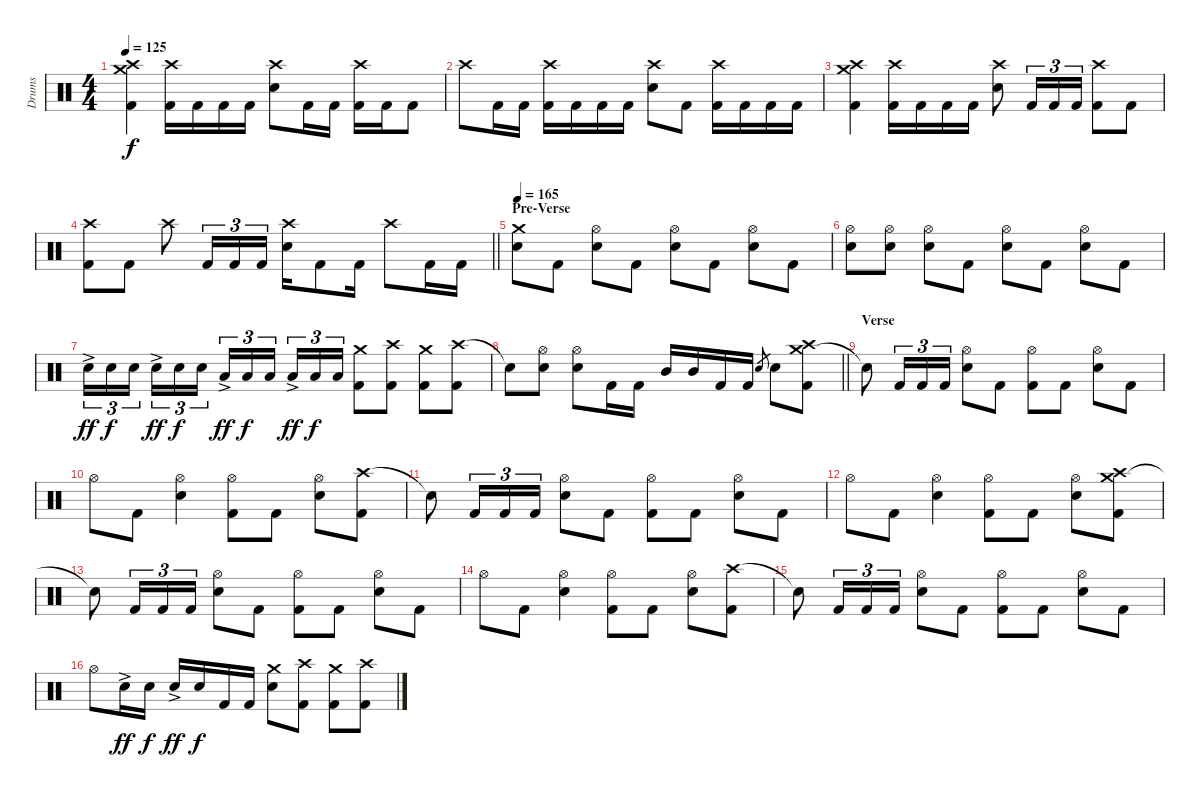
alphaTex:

\track ("Drums" "Drums") {instrument percussion}
\staff {score}
\articulation defaults
\ts (4 4)
\tempo 125
\clef neutral
\ks c
("Crash medium (hit)" "Crash high (hit)" "Kick (hit) 2").4{dy f} ("Crash high (hit)" "Kick (hit) 2").16 "Kick (hit) 2".16 "Kick (hit) 2".16 "Kick (hit) 2".16 ("Crash high (hit)" "Electric Snare (hit)").8 "Kick (hit) 2".16 "Kick (hit) 2".16 ("Crash high (hit)" "Kick (hit) 2").16 "Kick (hit) 2".16 "Kick (hit) 2".8 |
"Crash high (hit)".8 "Kick (hit) 2".16 "Kick (hit) 2".16 ("Crash high (hit)" "Kick (hit) 2").16 "Kick (hit) 2".16 "Kick (hit) 2".16 "Kick (hit) 2".16 ("Crash high (hit)" "Electric Snare (hit)").8 "Kick (hit) 2".8 ("Crash high (hit)" "Kick (hit) 2").16 "Kick (hit) 2".16 "Kick (hit) 2".16 "Kick (hit) 2".16 |
("Crash medium (hit)" "Crash high (hit)" "Kick (hit) 2").4 ("Crash high (hit)" "Kick (hit) 2").16 "Kick (hit) 2".16 "Kick (hit) 2".16 "Kick (hit) 2".16 ("Crash high (hit)" "Electric Snare (hit)").8 "Kick (hit) 2".16{tu (3 2)} "Kick (hit) 2".16{tu (3 2)} "Kick (hit) 2".16{tu (3 2)} ("Crash high (hit)" "Kick (hit) 2").8 "Kick (hit) 2".8 |
\barLineRight lightlight
("Crash high (hit)" "Kick (hit) 2").8 "Kick (hit) 2".8 "Crash high (hit)".8 "Kick (hit) 2".16{tu (3 2)} "Kick (hit) 2".16{tu (3 2)} "Kick (hit) 2".16{tu (3 2)} ("Crash high (hit)" "Electric Snare (hit)").16 "Kick (hit) 2".8 "Kick (hit) 2".16 "Crash high (hit)".8 "Kick (hit) 2".16 "Kick (hit) 2".16 |
\section ("" "Pre-Verse")
\tempo 165
("Crash medium (hit)" "Electric Snare (hit)").8 "Kick (hit) 2".8 ("Hi-Hat (open)" "Electric Snare (hit)").8 "Kick (hit) 2".8 ("Hi-Hat (open)" "Electric Snare (hit)").8 "Kick (hit) 2".8 ("Hi-Hat (open)" "Electric Snare (hit)").8 "Kick (hit) 2".8 |
("Hi-Hat (open)" "Electric Snare (hit)").8 ("Hi-Hat (open)" "Electric Snare (hit)").8 ("Hi-Hat (open)" "Electric Snare (hit)").8 "Kick (hit) 2".8 ("Hi-Hat (open)" "Electric Snare (hit)").8 "Kick (hit) 2".8 ("Hi-Hat (open)" "Electric Snare (hit)").8 "Kick (hit) 2".8 |
"Electric Snare (hit)"{ac}.16{tu (3 2) dy ff} "Electric Snare (hit)".16{tu (3 2) dy f} "Electric Snare (hit)".16{tu (3 2) beam splitsecondary} "Electric Snare (hit)"{ac}.16{tu (3 2) dy ff} "Electric Snare (hit)".16{tu (3 2) dy f} "Electric Snare (hit)".16{tu (3 2)} "Low Tom (hit)"{ac}.16{tu (3 2) dy ff} "Low Tom (hit)".16{tu (3 2) dy f} "Low Tom (hit)".16{tu (3 2) beam splitsecondary} "Low Tom (hit)"{ac}.16{tu (3 2) dy ff} "Low Tom (hit)".16{tu (3 2) dy f} "Low Tom (hit)".16{tu (3 2)} ("Crash medium (hit)" "Kick (hit) 2").8 ("Crash high (hit)" "Kick (hit) 2").8 ("Crash medium (hit)" "Kick (hit) 2").8 ("Crash high (hit)" "Kick (hit) 2").8 |
\barLineRight lightlight "Snare (hit)"{t}.8
("Hi-Hat (open)" "Electric Snare (hit)").8 ("Hi-Hat (open)" "Electric Snare (hit)").8 "Kick (hit) 2".16 "Kick (hit) 2".16 "Mid Tom (hit)".16 "Mid Tom (hit)".16 "Kick (hit) 2".16 "Kick (hit) 2".16 "Electric Snare (hit)".8{gr} "Electric Snare (hit)".8 ("Crash medium (hit)" "Crash high (hit)" "Kick (hit) 2").8 |
\section ("" "Verse")
"Snare (hit)"{t}.8 "Kick (hit) 2".16{tu (3 2)} "Kick (hit) 2".16{tu (3 2)} "Kick (hit) 2".16{tu (3 2)} ("Hi-Hat (open)" "Electric Snare (hit)").8 "Kick (hit) 2".8 ("Hi-Hat (open)" "Kick (hit) 2").8 "Kick (hit) 2".8 ("Hi-Hat (open)" "Electric Snare (hit)").8 "Kick (hit) 2".8 |
"Hi-Hat (open)".8 "Kick (hit) 2".8 ("Hi-Hat (open)" "Electric Snare (hit)").4 ("Hi-Hat (open)" "Kick (hit) 2").8 "Kick (hit) 2".8 ("Hi-Hat (open)" "Electric Snare (hit)").8 ("Crash high (hit)" "Kick (hit) 2").8 |
"Snare (hit)"{t}.8 "Kick (hit) 2".16{tu (3 2)} "Kick (hit) 2".16{tu (3 2)} "Kick (hit) 2".16{tu (3 2)} ("Hi-Hat (open)" "Electric Snare (hit)").8 "Kick (hit) 2".8 ("Hi-Hat (open)" "Kick (hit) 2").8 "Kick (hit) 2".8 ("Hi-Hat (open)" "Electric Snare (hit)").8 "Kick (hit) 2".8 |
"Hi-Hat (open)".8 "Kick (hit) 2".8 ("Hi-Hat (open)" "Electric Snare (hit)").4 ("Hi-Hat (open)" "Kick (hit) 2").8 "Kick (hit) 2".8 ("Hi-Hat (open)" "Electric Snare (hit)").8 ("Crash medium (hit)" "Crash high (hit)" "Kick (hit) 2").8 |
"Snare (hit)"{t}.8 "Kick (hit) 2".16{tu (3 2)} "Kick (hit) 2".16{tu (3 2)} "Kick (hit) 2".16{tu (3 2)} ("Hi-Hat (open)" "Electric Snare (hit)").8 "Kick (hit) 2".8 ("Hi-Hat (open)" "Kick (hit) 2").8 "Kick (hit) 2".8 ("Hi-Hat (open)" "Electric Snare (hit)").8 "Kick (hit) 2".8 |
"Hi-Hat (open)".8 "Kick (hit) 2".8 ("Hi-Hat (open)" "Electric Snare (hit)").4 ("Hi-Hat (open)" "Kick (hit) 2").8 "Kick (hit) 2".8 ("Hi-Hat (open)" "Electric Snare (hit)").8 ("Crash high (hit)" "Kick (hit) 2").8 |
"Snare (hit)"{t}.8 "Kick (hit) 2".16{tu (3 2)} "Kick (hit) 2".16{tu (3 2)} "Kick (hit) 2".16{tu (3 2)} ("Hi-Hat (open)" "Electric Snare (hit)").8 "Kick (hit) 2".8 ("Hi-Hat (open)" "Kick (hit) 2").8 "Kick (hit) 2".8 ("Hi-Hat (open)" "Electric Snare (hit)").8 "Kick (hit) 2".8 |
"Hi-Hat (open)".8 "Electric Snare (hit)"{ac}.16{dy ff} "Electric Snare (hit)".16{dy f} "Electric Snare (hit)"{ac}.16{dy ff} "Electric Snare (hit)".16{dy f} "Kick (hit) 2".16 "Kick (hit) 2".16 ("Crash medium (hit)" "Electric Snare (hit)").8 ("Crash high (hit)" "Kick (hit) 2").8 ("Crash medium (hit)" "Kick (hit) 2").8 ("Crash high (hit)" "Kick (hit) 2").8
